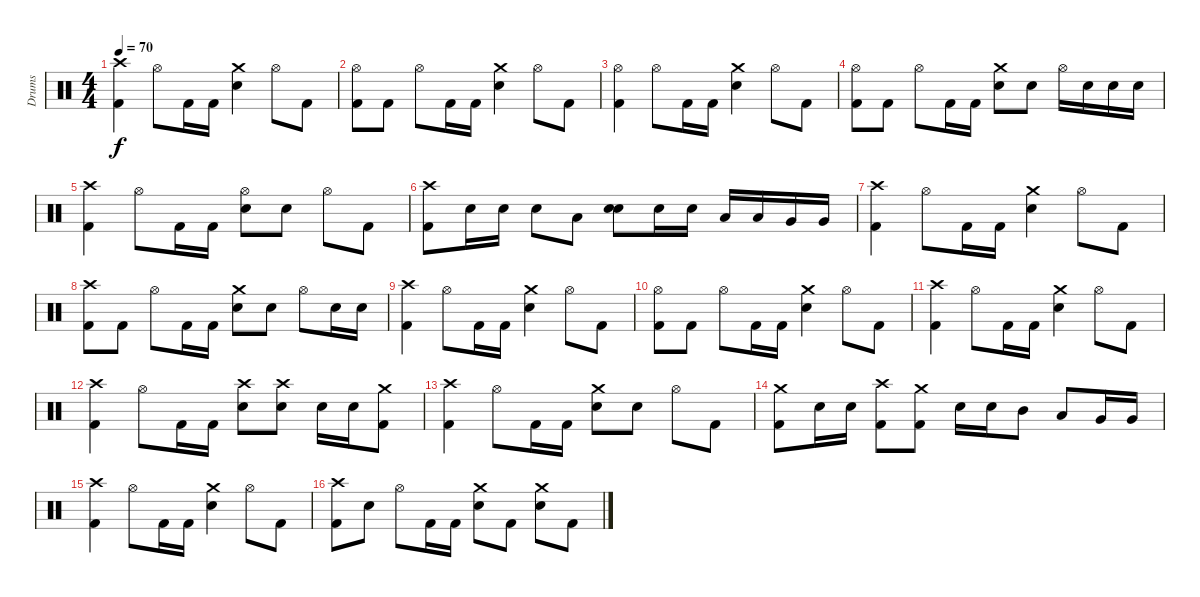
\track ("Drums" "Drums") {instrument percussion}
\staff {score}
\articulation defaults
\ts (4 4)
\tempo 70
\clef neutral
\ks c
("Crash high (hit)" "Kick (hit) 2").4{dy f} "Hi-Hat (open)".8 "Kick (hit) 2".16 "Kick (hit) 2".16 ("Crash medium (hit)" "Electric Snare (hit)").4 "Hi-Hat (open)".8 "Kick (hit) 2".8 |
("Hi-Hat (open)" "Kick (hit) 2").8 "Kick (hit) 2".8 "Hi-Hat (open)".8 "Kick (hit) 2".16 "Kick (hit) 2".16 ("Crash medium (hit)" "Electric Snare (hit)").4 "Hi-Hat (open)".8 "Kick (hit) 2".8 |
("Hi-Hat (open)" "Kick (hit) 2").4 "Hi-Hat (open)".8 "Kick (hit) 2".16 "Kick (hit) 2".16 ("Crash medium (hit)" "Electric Snare (hit)").4 "Hi-Hat (open)".8 "Kick (hit) 2".8 |
("Hi-Hat (open)" "Kick (hit) 2").8 "Kick (hit) 2".8 "Hi-Hat (open)".8 "Kick (hit) 2".16 "Kick (hit) 2".16 ("Crash medium (hit)" "Electric Snare (hit)").8 "Electric Snare (hit)".8 "Hi-Hat (open)".16 "Electric Snare (hit)".16 "Electric Snare (hit)".16 "Electric Snare (hit)".16 |
("Crash high (hit)" "Kick (hit) 2").4 "Hi-Hat (open)".8 "Kick (hit) 2".16 "Kick (hit) 2".16 ("Hi-Hat (open)" "Electric Snare (hit)").8 "Electric Snare (hit)".8 "Hi-Hat (open)".8 "Kick (hit) 2".8 |
("Crash high (hit)" "Kick (hit) 2").8 "Electric Snare (hit)".16 "Electric Snare (hit)".16 "Electric Snare (hit)".8 "Low Tom (hit)".8 ("Electric Snare (hit)" "Electric Snare (hit)").8{bu 60} "Electric Snare (hit)".16 "Electric Snare (hit)".16 "Low Tom (hit)".16 "Low Tom (hit)".16 "Very Low Tom (hit)".16 "Very Low Tom (hit)".16 |
("Crash high (hit)" "Kick (hit) 2").4 "Hi-Hat (open)".8 "Kick (hit) 2".16 "Kick (hit) 2".16 ("Crash medium (hit)" "Electric Snare (hit)").4 "Hi-Hat (open)".8 "Kick (hit) 2".8 |
("Crash high (hit)" "Kick (hit) 2").8 "Kick (hit) 2".8 "Hi-Hat (open)".8 "Kick (hit) 2".16 "Kick (hit) 2".16 ("Crash medium (hit)" "Electric Snare (hit)").8 "Electric Snare (hit)".8 "Hi-Hat (open)".8 "Electric Snare (hit)".16 "Electric Snare (hit)".16 |
("Crash high (hit)" "Kick (hit) 2").4 "Hi-Hat (open)".8 "Kick (hit) 2".16 "Kick (hit) 2".16 ("Crash medium (hit)" "Electric Snare (hit)").4 "Hi-Hat (open)".8 "Kick (hit) 2".8 |
("Hi-Hat (open)" "Kick (hit) 2").8 "Kick (hit) 2".8 "Hi-Hat (open)".8 "Kick (hit) 2".16 "Kick (hit) 2".16 ("Crash medium (hit)" "Electric Snare (hit)").4 "Hi-Hat (open)".8 "Kick (hit) 2".8 |
("Crash high (hit)" "Kick (hit) 2").4 "Hi-Hat (open)".8 "Kick (hit) 2".16 "Kick (hit) 2".16 ("Crash medium (hit)" "Electric Snare (hit)").4 "Hi-Hat (open)".8 "Kick (hit) 2".8 |
("Crash high (hit)" "Kick (hit) 2").4 "Hi-Hat (open)".8 "Kick (hit) 2".16 "Kick (hit) 2".16 ("Crash high (hit)" "Electric Snare (hit)").8 ("Crash high (hit)" "Electric Snare (hit)").8 "Electric Snare (hit)".16 "Electric Snare (hit)".16 ("Crash medium (hit)" "Kick (hit) 2").8 |
("Crash high (hit)" "Kick (hit) 2").4 "Hi-Hat (open)".8 "Kick (hit) 2".16 "Kick (hit) 2".16 ("Crash medium (hit)" "Electric Snare (hit)").8 "Electric Snare (hit)".8 "Hi-Hat (open)".8 "Kick (hit) 2".8 |
("Crash medium (hit)" "Kick (hit) 2").8 "Electric Snare (hit)".16 "Electric Snare (hit)".16 ("Crash high (hit)" "Kick (hit) 2").8 ("Crash medium (hit)" "Kick (hit) 2").8 "Electric Snare (hit)".16 "Electric Snare (hit)".16 "Mid Tom (hit)".8 "Low Tom (hit)".8 "Very Low Tom (hit)".16 "Very Low Tom (hit)".16 |
("Crash high (hit)" "Kick (hit) 2").4 "Hi-Hat (open)".8 "Kick (hit) 2".16 "Kick (hit) 2".16 ("Crash medium (hit)" "Electric Snare (hit)").4 "Hi-Hat (open)".8 "Kick (hit) 2".8 |
("Crash high (hit)" "Kick (hit) 2").8 "Electric Snare (hit)".8 "Hi-Hat (open)".8 "Kick (hit) 2".16 "Kick (hit) 2".16 ("Crash medium (hit)" "Electric Snare (hit)").8 "Kick (hit) 2".8 ("Crash medium (hit)" "Electric Snare (hit)").8 "Kick (hit) 2".8
